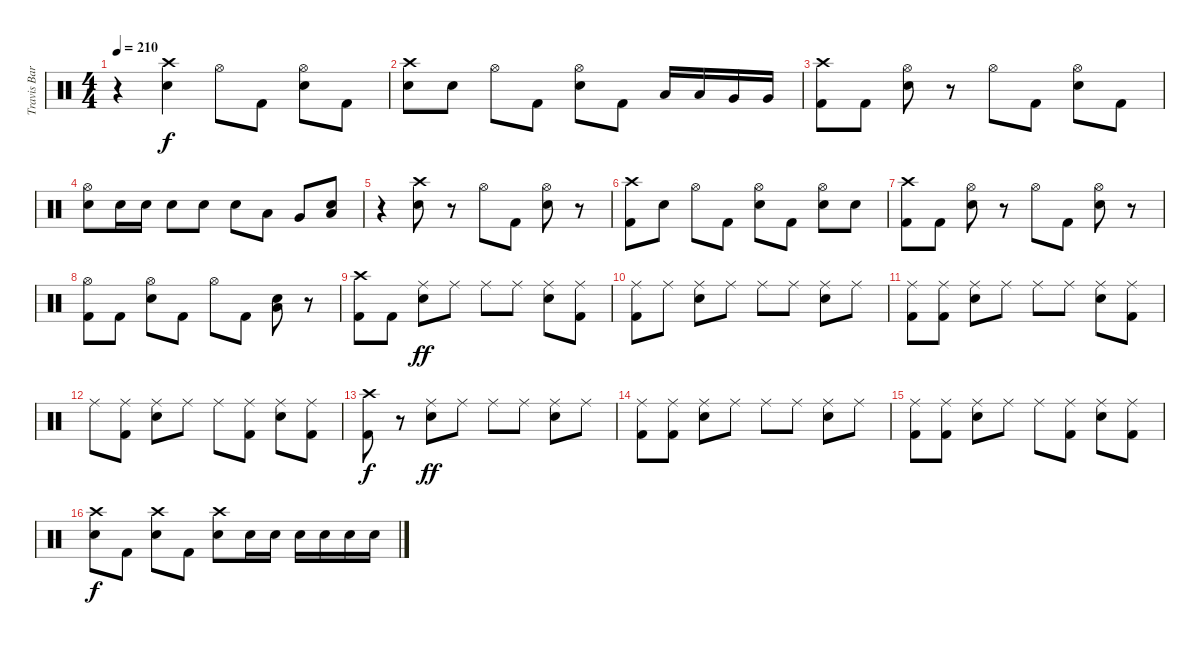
\track ("Travis Barker" "Travis Bar") {instrument percussion}
\staff {score}
\articulation defaults
\ts (4 4)
\tempo 210
\clef neutral
\ks c
r.4{dy f} ("Crash high (hit)" "Electric Snare (hit)").4 "Hi-Hat (open)".8 "Kick (hit) 2".8 ("Hi-Hat (open)" "Electric Snare (hit)").8 "Kick (hit) 2".8 |
("Crash high (hit)" "Electric Snare (hit)").8 "Electric Snare (hit)".8 "Hi-Hat (open)".8 "Kick (hit) 2".8 ("Hi-Hat (open)" "Electric Snare (hit)").8 "Kick (hit) 2".8 "Low Tom (hit)".16 "Low Tom (hit)".16 "Very Low Tom (hit)".16 "Very Low Tom (hit)".16 |
("Crash high (hit)" "Kick (hit) 2").8 "Kick (hit) 2".8 ("Hi-Hat (open)" "Electric Snare (hit)").8 r.8 "Hi-Hat (open)".8 "Kick (hit) 2".8 ("Hi-Hat (open)" "Electric Snare (hit)").8 "Kick (hit) 2".8 |
("Hi-Hat (open)" "Electric Snare (hit)").8 "Electric Snare (hit)".16 "Electric Snare (hit)".16 "Electric Snare (hit)".8 "Electric Snare (hit)".8 "Electric Snare (hit)".8 "Low Tom (hit)".8 "Very Low Tom (hit)".8 ("Electric Snare (hit)" "Low Floor Tom (hit)").8 |
r.4 ("Crash high (hit)" "Electric Snare (hit)").8 r.8 "Hi-Hat (open)".8 "Kick (hit) 2".8 ("Hi-Hat (open)" "Electric Snare (hit)").8 r.8 |
("Crash high (hit)" "Kick (hit) 2").8 "Electric Snare (hit)".8 "Hi-Hat (open)".8 "Kick (hit) 2".8 ("Hi-Hat (open)" "Electric Snare (hit)").8 "Kick (hit) 2".8 ("Hi-Hat (open)" "Electric Snare (hit)").8 "Electric Snare (hit)".8 |
("Crash high (hit)" "Kick (hit) 2").8 "Kick (hit) 2".8 ("Hi-Hat (open)" "Electric Snare (hit)").8 r.8 "Hi-Hat (open)".8 "Kick (hit) 2".8 ("Hi-Hat (open)" "Electric Snare (hit)").8 r.8 |
("Hi-Hat (open)" "Kick (hit) 2").8 "Kick (hit) 2".8 ("Hi-Hat (open)" "Electric Snare (hit)").8 "Kick (hit) 2".8 "Hi-Hat (open)".8 "Kick (hit) 2".8 ("Electric Snare (hit)" "Low Tom (hit)").8 r.8 |
("Crash high (hit)" "Kick (hit) 2").8 "Kick (hit) 2".8 ("Ride (middle)" "Electric Snare (hit)").8{dy ff} "Ride (middle)".8 "Ride (middle)".8 "Ride (middle)".8 ("Ride (middle)" "Electric Snare (hit)").8 ("Ride (middle)" "Kick (hit) 2").8 |
("Ride (middle)" "Kick (hit) 2").8 "Ride (middle)".8 ("Ride (middle)" "Electric Snare (hit)").8 "Ride (middle)".8 "Ride (middle)".8 "Ride (middle)".8 ("Ride (middle)" "Electric Snare (hit)").8 "Ride (middle)".8 |
("Ride (middle)" "Kick (hit) 2").8 ("Ride (middle)" "Kick (hit) 2").8 ("Ride (middle)" "Electric Snare (hit)").8 "Ride (middle)".8 "Ride (middle)".8 "Ride (middle)".8 ("Ride (middle)" "Electric Snare (hit)").8 ("Ride (middle)" "Kick (hit) 2").8 |
"Ride (middle)".8 ("Ride (middle)" "Kick (hit) 2").8 ("Ride (middle)" "Electric Snare (hit)").8 "Ride (middle)".8 "Ride (middle)".8 ("Ride (middle)" "Kick (hit) 2").8 ("Ride (middle)" "Electric Snare (hit)").8 ("Ride (middle)" "Kick (hit) 2").8 |
("Crash high (hit)" "Kick (hit) 2").8{dy f} r.8 ("Ride (middle)" "Electric Snare (hit)").8{dy ff} "Ride (middle)".8 "Ride (middle)".8 "Ride (middle)".8 ("Ride (middle)" "Electric Snare (hit)").8 "Ride (middle)".8 |
("Ride (middle)" "Kick (hit) 2").8 ("Ride (middle)" "Kick (hit) 2").8 ("Ride (middle)" "Electric Snare (hit)").8 "Ride (middle)".8 "Ride (middle)".8 "Ride (middle)".8 ("Ride (middle)" "Electric Snare (hit)").8 "Ride (middle)".8 |
("Ride (middle)" "Kick (hit) 2").8 ("Ride (middle)" "Kick (hit) 2").8 ("Ride (middle)" "Electric Snare (hit)").8 "Ride (middle)".8 "Ride (middle)".8 ("Ride (middle)" "Kick (hit) 2").8 ("Ride (middle)" "Electric Snare (hit)").8 ("Ride (middle)" "Kick (hit) 2").8 |
("Crash high (hit)" "Snare (hit) 2").8{dy f} "Kick (hit) 2".8 ("Crash high (hit)" "Electric Snare (hit)").8 "Kick (hit) 2".8 ("Crash high (hit)" "Electric Snare (hit)").8 "Electric Snare (hit)".16 "Electric Snare (hit)".16 "Electric Snare (hit)".16 "Electric Snare (hit)".16 "Electric Snare (hit)".16 "Electric Snare (hit)".16
